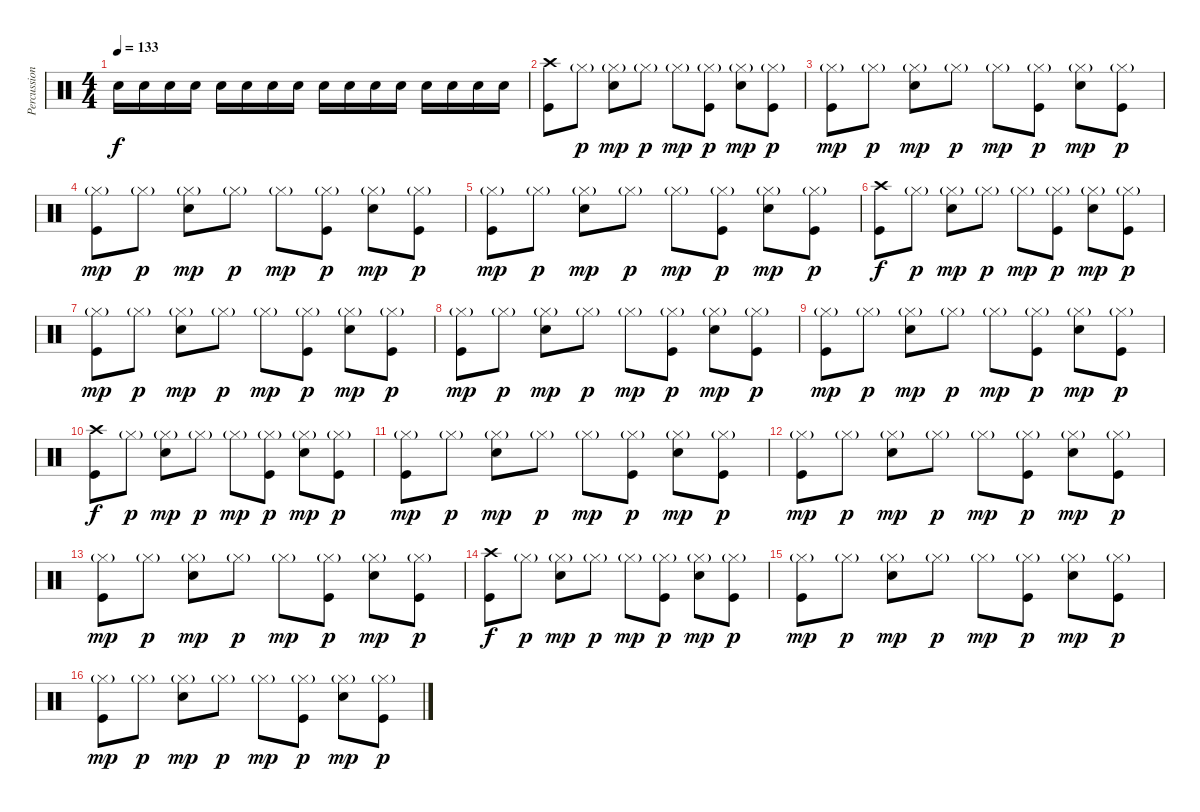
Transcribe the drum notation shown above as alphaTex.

\track ("Percussion" "Percussion") {instrument percussion}
\staff {score}
\articulation defaults
\ts (4 4)
\tempo 133
\clef neutral
\ks c "Electric Snare (hit)".16{dy f} "Electric Snare (hit)".16 "Electric Snare (hit)".16 "Electric Snare (hit)".16 "Electric Snare (hit)".16 "Electric Snare (hit)".16 "Electric Snare (hit)".16 "Electric Snare (hit)".16 "Electric Snare (hit)".16 "Electric Snare (hit)".16 "Electric Snare (hit)".16 "Electric Snare (hit)".16 "Electric Snare (hit)".16 "Electric Snare (hit)".16 "Electric Snare (hit)".16 "Electric Snare (hit)".16
|
("Crash high (hit)" "Kick (hit)").8 "Hi-Hat (closed)"{g}.8{dy p} ("Hi-Hat (closed)"{g} "Electric Snare (hit)").8{dy mp} "Hi-Hat (closed)"{g}.8{dy p} "Hi-Hat (closed)"{g}.8{dy mp} ("Hi-Hat (closed)"{g} "Kick (hit)").8{dy p} ("Hi-Hat (closed)"{g} "Electric Snare (hit)").8{dy mp} ("Hi-Hat (closed)"{g} "Kick (hit)").8{dy p} |
("Hi-Hat (closed)"{g} "Kick (hit)").8{dy mp} "Hi-Hat (closed)"{g}.8{dy p} ("Hi-Hat (closed)"{g} "Electric Snare (hit)").8{dy mp} "Hi-Hat (closed)"{g}.8{dy p} "Hi-Hat (closed)"{g}.8{dy mp} ("Hi-Hat (closed)"{g} "Kick (hit)").8{dy p} ("Hi-Hat (closed)"{g} "Electric Snare (hit)").8{dy mp} ("Hi-Hat (closed)"{g} "Kick (hit)").8{dy p} |
("Hi-Hat (closed)"{g} "Kick (hit)").8{dy mp} "Hi-Hat (closed)"{g}.8{dy p} ("Hi-Hat (closed)"{g} "Electric Snare (hit)").8{dy mp} "Hi-Hat (closed)"{g}.8{dy p} "Hi-Hat (closed)"{g}.8{dy mp} ("Hi-Hat (closed)"{g} "Kick (hit)").8{dy p} ("Hi-Hat (closed)"{g} "Electric Snare (hit)").8{dy mp} ("Hi-Hat (closed)"{g} "Kick (hit)").8{dy p} |
("Hi-Hat (closed)"{g} "Kick (hit)").8{dy mp} "Hi-Hat (closed)"{g}.8{dy p} ("Hi-Hat (closed)"{g} "Electric Snare (hit)").8{dy mp} "Hi-Hat (closed)"{g}.8{dy p} "Hi-Hat (closed)"{g}.8{dy mp} ("Hi-Hat (closed)"{g} "Kick (hit)").8{dy p} ("Hi-Hat (closed)"{g} "Electric Snare (hit)").8{dy mp} ("Hi-Hat (closed)"{g} "Kick (hit)").8{dy p} |
("Crash high (hit)" "Kick (hit)").8{dy f} "Hi-Hat (closed)"{g}.8{dy p} ("Hi-Hat (closed)"{g} "Electric Snare (hit)").8{dy mp} "Hi-Hat (closed)"{g}.8{dy p} "Hi-Hat (closed)"{g}.8{dy mp} ("Hi-Hat (closed)"{g} "Kick (hit)").8{dy p} ("Hi-Hat (closed)"{g} "Electric Snare (hit)").8{dy mp} ("Hi-Hat (closed)"{g} "Kick (hit)").8{dy p} |
("Hi-Hat (closed)"{g} "Kick (hit)").8{dy mp} "Hi-Hat (closed)"{g}.8{dy p} ("Hi-Hat (closed)"{g} "Electric Snare (hit)").8{dy mp} "Hi-Hat (closed)"{g}.8{dy p} "Hi-Hat (closed)"{g}.8{dy mp} ("Hi-Hat (closed)"{g} "Kick (hit)").8{dy p} ("Hi-Hat (closed)"{g} "Electric Snare (hit)").8{dy mp} ("Hi-Hat (closed)"{g} "Kick (hit)").8{dy p} |
("Hi-Hat (closed)"{g} "Kick (hit)").8{dy mp} "Hi-Hat (closed)"{g}.8{dy p} ("Hi-Hat (closed)"{g} "Electric Snare (hit)").8{dy mp} "Hi-Hat (closed)"{g}.8{dy p} "Hi-Hat (closed)"{g}.8{dy mp} ("Hi-Hat (closed)"{g} "Kick (hit)").8{dy p} ("Hi-Hat (closed)"{g} "Electric Snare (hit)").8{dy mp} ("Hi-Hat (closed)"{g} "Kick (hit)").8{dy p} |
("Hi-Hat (closed)"{g} "Kick (hit)").8{dy mp} "Hi-Hat (closed)"{g}.8{dy p} ("Hi-Hat (closed)"{g} "Electric Snare (hit)").8{dy mp} "Hi-Hat (closed)"{g}.8{dy p} "Hi-Hat (closed)"{g}.8{dy mp} ("Hi-Hat (closed)"{g} "Kick (hit)").8{dy p} ("Hi-Hat (closed)"{g} "Electric Snare (hit)").8{dy mp} ("Hi-Hat (closed)"{g} "Kick (hit)").8{dy p} |
("Crash high (hit)" "Kick (hit)").8{dy f} "Hi-Hat (closed)"{g}.8{dy p} ("Hi-Hat (closed)"{g} "Electric Snare (hit)").8{dy mp} "Hi-Hat (closed)"{g}.8{dy p} "Hi-Hat (closed)"{g}.8{dy mp} ("Hi-Hat (closed)"{g} "Kick (hit)").8{dy p} ("Hi-Hat (closed)"{g} "Electric Snare (hit)").8{dy mp} ("Hi-Hat (closed)"{g} "Kick (hit)").8{dy p} |
("Hi-Hat (closed)"{g} "Kick (hit)").8{dy mp} "Hi-Hat (closed)"{g}.8{dy p} ("Hi-Hat (closed)"{g} "Electric Snare (hit)").8{dy mp} "Hi-Hat (closed)"{g}.8{dy p} "Hi-Hat (closed)"{g}.8{dy mp} ("Hi-Hat (closed)"{g} "Kick (hit)").8{dy p} ("Hi-Hat (closed)"{g} "Electric Snare (hit)").8{dy mp} ("Hi-Hat (closed)"{g} "Kick (hit)").8{dy p} |
("Hi-Hat (closed)"{g} "Kick (hit)").8{dy mp} "Hi-Hat (closed)"{g}.8{dy p} ("Hi-Hat (closed)"{g} "Electric Snare (hit)").8{dy mp} "Hi-Hat (closed)"{g}.8{dy p} "Hi-Hat (closed)"{g}.8{dy mp} ("Hi-Hat (closed)"{g} "Kick (hit)").8{dy p} ("Hi-Hat (closed)"{g} "Electric Snare (hit)").8{dy mp} ("Hi-Hat (closed)"{g} "Kick (hit)").8{dy p} |
("Hi-Hat (closed)"{g} "Kick (hit)").8{dy mp} "Hi-Hat (closed)"{g}.8{dy p} ("Hi-Hat (closed)"{g} "Electric Snare (hit)").8{dy mp} "Hi-Hat (closed)"{g}.8{dy p} "Hi-Hat (closed)"{g}.8{dy mp} ("Hi-Hat (closed)"{g} "Kick (hit)").8{dy p} ("Hi-Hat (closed)"{g} "Electric Snare (hit)").8{dy mp} ("Hi-Hat (closed)"{g} "Kick (hit)").8{dy p} |
("Crash high (hit)" "Kick (hit)").8{dy f} "Hi-Hat (closed)"{g}.8{dy p} ("Hi-Hat (closed)"{g} "Electric Snare (hit)").8{dy mp} "Hi-Hat (closed)"{g}.8{dy p} "Hi-Hat (closed)"{g}.8{dy mp} ("Hi-Hat (closed)"{g} "Kick (hit)").8{dy p} ("Hi-Hat (closed)"{g} "Electric Snare (hit)").8{dy mp} ("Hi-Hat (closed)"{g} "Kick (hit)").8{dy p} |
("Hi-Hat (closed)"{g} "Kick (hit)").8{dy mp} "Hi-Hat (closed)"{g}.8{dy p} ("Hi-Hat (closed)"{g} "Electric Snare (hit)").8{dy mp} "Hi-Hat (closed)"{g}.8{dy p} "Hi-Hat (closed)"{g}.8{dy mp} ("Hi-Hat (closed)"{g} "Kick (hit)").8{dy p} ("Hi-Hat (closed)"{g} "Electric Snare (hit)").8{dy mp} ("Hi-Hat (closed)"{g} "Kick (hit)").8{dy p} |
("Hi-Hat (closed)"{g} "Kick (hit)").8{dy mp} "Hi-Hat (closed)"{g}.8{dy p} ("Hi-Hat (closed)"{g} "Electric Snare (hit)").8{dy mp} "Hi-Hat (closed)"{g}.8{dy p} "Hi-Hat (closed)"{g}.8{dy mp} ("Hi-Hat (closed)"{g} "Kick (hit)").8{dy p} ("Hi-Hat (closed)"{g} "Electric Snare (hit)").8{dy mp} ("Hi-Hat (closed)"{g} "Kick (hit)").8{dy p}
